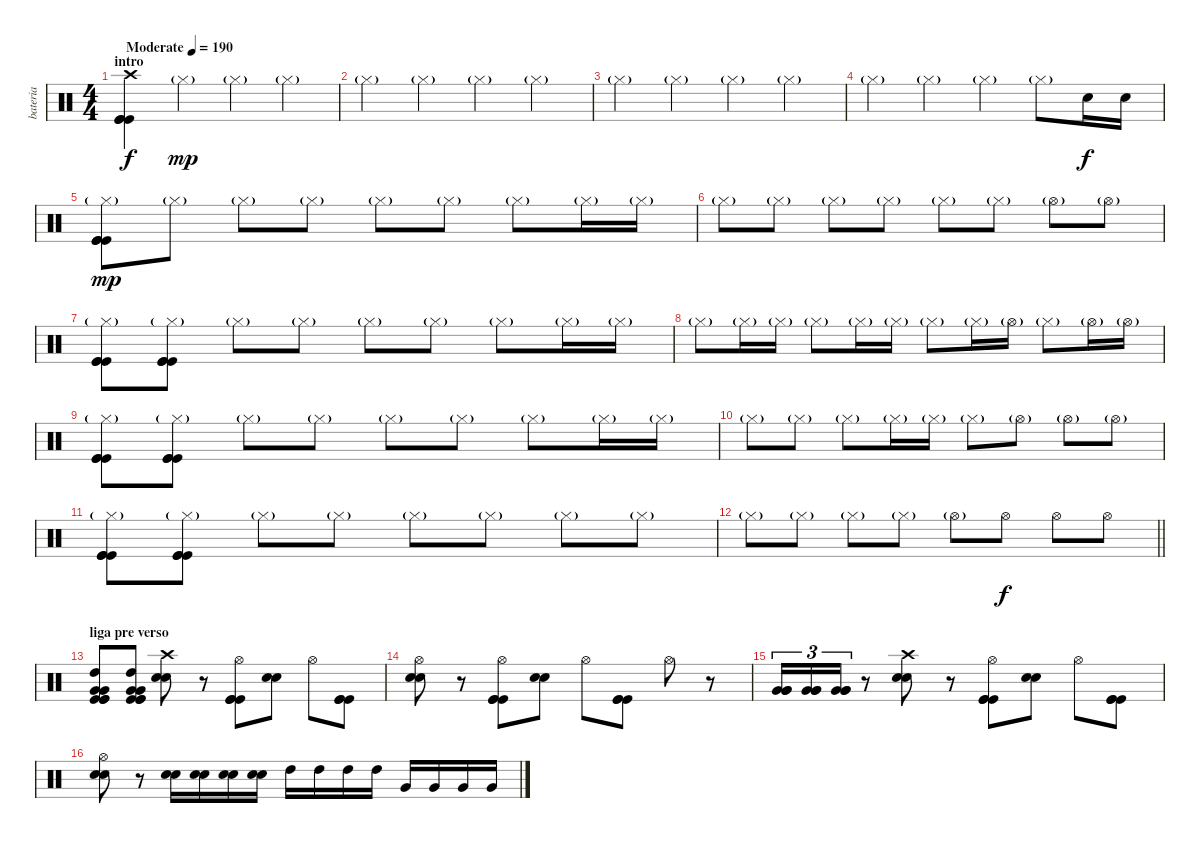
\track ("bateria" "bateria") {instrument percussion}
\staff {score}
\articulation defaults
\ts (4 4)
\section ("" "intro")
\tempo (190 "Moderate")
\clef neutral
\ks c
("Crash high (hit)" "Kick (hit)" "Kick (hit)" "Kick (hit)").4{dy f} "Hi-Hat (closed)"{g}.4{dy mp} "Hi-Hat (closed)"{g}.4 "Hi-Hat (closed)"{g}.4 |
"Hi-Hat (closed)"{g}.4 "Hi-Hat (closed)"{g}.4 "Hi-Hat (closed)"{g}.4 "Hi-Hat (closed)"{g}.4 |
"Hi-Hat (closed)"{g}.4 "Hi-Hat (closed)"{g}.4 "Hi-Hat (closed)"{g}.4 "Hi-Hat (closed)"{g}.4 |
"Hi-Hat (closed)"{g}.4 "Hi-Hat (closed)"{g}.4 "Hi-Hat (closed)"{g}.4 "Hi-Hat (closed)"{g}.8 "Electric Snare (hit)".16{dy f} "Electric Snare (hit)".16 |
("Hi-Hat (closed)"{g} "Kick (hit)" "Kick (hit)" "Kick (hit)").8{dy mp} "Hi-Hat (closed)"{g}.8 "Hi-Hat (closed)"{g}.8 "Hi-Hat (closed)"{g}.8 "Hi-Hat (closed)"{g}.8 "Hi-Hat (closed)"{g}.8 "Hi-Hat (closed)"{g}.8 "Hi-Hat (closed)"{g}.16 "Hi-Hat (closed)"{g}.16 |
"Hi-Hat (closed)"{g}.8 "Hi-Hat (closed)"{g}.8 "Hi-Hat (closed)"{g}.8 "Hi-Hat (closed)"{g}.8 "Hi-Hat (closed)"{g}.8 "Hi-Hat (closed)"{g}.8 "Hi-Hat (open)"{g}.8 "Hi-Hat (open)"{g}.8 |
("Hi-Hat (closed)"{g} "Kick (hit)" "Kick (hit)" "Kick (hit)").8 ("Hi-Hat (closed)"{g} "Kick (hit)" "Kick (hit)" "Kick (hit)").8 "Hi-Hat (closed)"{g}.8 "Hi-Hat (closed)"{g}.8 "Hi-Hat (closed)"{g}.8 "Hi-Hat (closed)"{g}.8 "Hi-Hat (closed)"{g}.8 "Hi-Hat (closed)"{g}.16 "Hi-Hat (closed)"{g}.16 |
"Hi-Hat (closed)"{g}.8 "Hi-Hat (closed)"{g}.16 "Hi-Hat (closed)"{g}.16 "Hi-Hat (closed)"{g}.8 "Hi-Hat (closed)"{g}.16 "Hi-Hat (closed)"{g}.16 "Hi-Hat (closed)"{g}.8 "Hi-Hat (closed)"{g}.16 "Hi-Hat (open)"{g}.16 "Hi-Hat (closed)"{g}.8 "Hi-Hat (open)"{g}.16 "Hi-Hat (open)"{g}.16 |
("Hi-Hat (closed)"{g} "Kick (hit)" "Kick (hit)" "Kick (hit)").8 ("Hi-Hat (closed)"{g} "Kick (hit)" "Kick (hit)" "Kick (hit)").8 "Hi-Hat (closed)"{g}.8 "Hi-Hat (closed)"{g}.8 "Hi-Hat (closed)"{g}.8 "Hi-Hat (closed)"{g}.8 "Hi-Hat (closed)"{g}.8 "Hi-Hat (closed)"{g}.16 "Hi-Hat (closed)"{g}.16 |
"Hi-Hat (closed)"{g}.8 "Hi-Hat (closed)"{g}.8 "Hi-Hat (closed)"{g}.8 "Hi-Hat (closed)"{g}.16 "Hi-Hat (closed)"{g}.16 "Hi-Hat (closed)"{g}.8 "Hi-Hat (open)"{g}.8 "Hi-Hat (open)"{g}.8 "Hi-Hat (open)"{g}.8 |
("Hi-Hat (closed)"{g} "Kick (hit)" "Kick (hit)" "Kick (hit)").8 ("Hi-Hat (closed)"{g} "Kick (hit)" "Kick (hit)" "Kick (hit)").8 "Hi-Hat (closed)"{g}.8 "Hi-Hat (closed)"{g}.8 "Hi-Hat (closed)"{g}.8 "Hi-Hat (closed)"{g}.8 "Hi-Hat (closed)"{g}.8 "Hi-Hat (closed)"{g}.8 |
\barLineRight lightlight "Hi-Hat (closed)"{g}.8 "Hi-Hat (closed)"{g}.8 "Hi-Hat (closed)"{g}.8 "Hi-Hat (closed)"{g}.8 "Hi-Hat (open)"{g}.8 "Hi-Hat (open)".8{dy f} "Hi-Hat (open)".8 "Hi-Hat (open)".8
|
\section ("" "liga pre verso")
("Very Low Tom (hit)" "Very Low Tom (hit)" "High Tom (hit)" "Kick (hit)" "Kick (hit)" "Kick (hit)").8 ("Very Low Tom (hit)" "Very Low Tom (hit)" "High Tom (hit)" "Kick (hit)" "Kick (hit)" "Kick (hit)").8 ("Electric Snare (hit)" "Crash high (hit)" "Electric Snare (hit)").8 r.8 ("Hi-Hat (open)" "Kick (hit)" "Kick (hit)" "Kick (hit)").8 ("Snare (hit)" "Electric Snare (hit)").8 "Hi-Hat (open)".8 ("Kick (hit)" "Kick (hit)" "Kick (hit)").8 |
("Electric Snare (hit)" "Hi-Hat (open)" "Electric Snare (hit)").8 r.8 ("Hi-Hat (open)" "Kick (hit)" "Kick (hit)" "Kick (hit)").8 ("Electric Snare (hit)" "Electric Snare (hit)").8 "Hi-Hat (open)".8 ("Kick (hit)" "Kick (hit)" "Kick (hit)").8 "Hi-Hat (open)".8 r.8 |
("Very Low Tom (hit)" "Very Low Tom (hit)" "Very Low Tom (hit)").16{tu (3 2)} ("Very Low Tom (hit)" "Very Low Tom (hit)" "Very Low Tom (hit)").16{tu (3 2)} ("Very Low Tom (hit)" "Very Low Tom (hit)" "Very Low Tom (hit)").16{tu (3 2)} r.8 ("Electric Snare (hit)" "Crash high (hit)" "Electric Snare (hit)").8 r.8 ("Hi-Hat (open)" "Kick (hit)" "Kick (hit)" "Kick (hit)").8 ("Electric Snare (hit)" "Electric Snare (hit)").8 "Hi-Hat (open)".8 ("Kick (hit)" "Kick (hit)" "Kick (hit)").8 |
("Electric Snare (hit)" "Hi-Hat (open)" "Electric Snare (hit)").8 r.8 ("Electric Snare (hit)" "Electric Snare (hit)").16 ("Electric Snare (hit)" "Electric Snare (hit)").16 ("Electric Snare (hit)" "Electric Snare (hit)").16 ("Electric Snare (hit)" "Electric Snare (hit)").16 "High Tom (hit)".16 "High Tom (hit)".16 "High Tom (hit)".16 "High Tom (hit)".16 "Very Low Tom (hit)".16 "Very Low Tom (hit)".16 "Very Low Tom (hit)".16 "Very Low Tom (hit)".16
